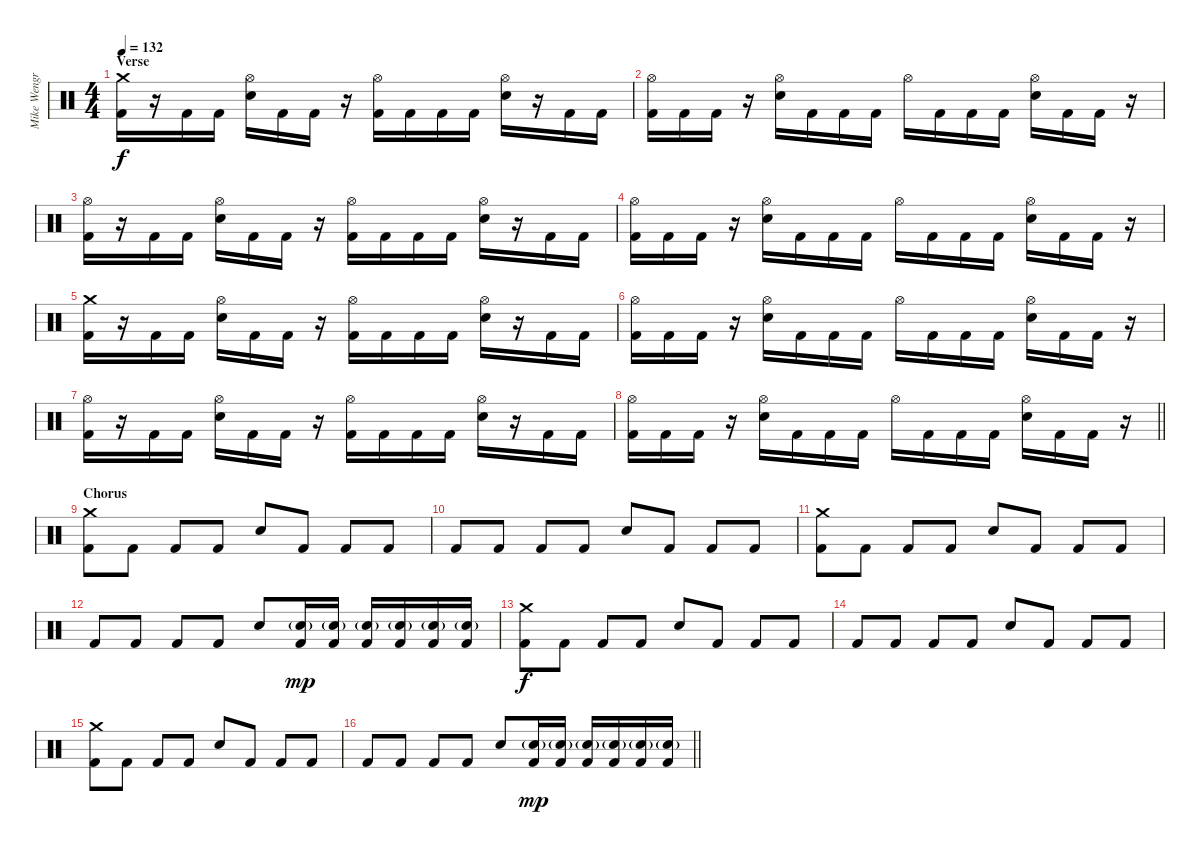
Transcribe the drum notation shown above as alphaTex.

\track ("Mike Wengren" "Mike Wengr") {instrument percussion}
\staff {score}
\articulation defaults
\ts (4 4)
\section ("" "Verse")
\tempo 132
\clef neutral
\ks c
("Crash medium (hit)" "Kick (hit) 2").16{dy f} r.16 "Kick (hit) 2".16 "Kick (hit) 2".16 ("Hi-Hat (open)" "Electric Snare (hit)").16 "Kick (hit) 2".16 "Kick (hit) 2".16 r.16 ("Hi-Hat (open)" "Kick (hit) 2").16 "Kick (hit) 2".16 "Kick (hit) 2".16 "Kick (hit) 2".16 ("Hi-Hat (open)" "Electric Snare (hit)").16 r.16 "Kick (hit) 2".16 "Kick (hit) 2".16 |
("Hi-Hat (open)" "Kick (hit) 2").16 "Kick (hit) 2".16 "Kick (hit) 2".16 r.16 ("Hi-Hat (open)" "Electric Snare (hit)").16 "Kick (hit) 2".16 "Kick (hit) 2".16 "Kick (hit) 2".16 "Hi-Hat (open)".16 "Kick (hit) 2".16 "Kick (hit) 2".16 "Kick (hit) 2".16 ("Hi-Hat (open)" "Electric Snare (hit)").16 "Kick (hit) 2".16 "Kick (hit) 2".16 r.16 |
("Hi-Hat (open)" "Kick (hit) 2").16 r.16 "Kick (hit) 2".16 "Kick (hit) 2".16 ("Hi-Hat (open)" "Electric Snare (hit)").16 "Kick (hit) 2".16 "Kick (hit) 2".16 r.16 ("Hi-Hat (open)" "Kick (hit) 2").16 "Kick (hit) 2".16 "Kick (hit) 2".16 "Kick (hit) 2".16 ("Hi-Hat (open)" "Electric Snare (hit)").16 r.16 "Kick (hit) 2".16 "Kick (hit) 2".16 |
("Hi-Hat (open)" "Kick (hit) 2").16 "Kick (hit) 2".16 "Kick (hit) 2".16 r.16 ("Hi-Hat (open)" "Electric Snare (hit)").16 "Kick (hit) 2".16 "Kick (hit) 2".16 "Kick (hit) 2".16 "Hi-Hat (open)".16 "Kick (hit) 2".16 "Kick (hit) 2".16 "Kick (hit) 2".16 ("Hi-Hat (open)" "Electric Snare (hit)").16 "Kick (hit) 2".16 "Kick (hit) 2".16 r.16 |
("Crash medium (hit)" "Kick (hit) 2").16 r.16 "Kick (hit) 2".16 "Kick (hit) 2".16 ("Hi-Hat (open)" "Electric Snare (hit)").16 "Kick (hit) 2".16 "Kick (hit) 2".16 r.16 ("Hi-Hat (open)" "Kick (hit) 2").16 "Kick (hit) 2".16 "Kick (hit) 2".16 "Kick (hit) 2".16 ("Hi-Hat (open)" "Electric Snare (hit)").16 r.16 "Kick (hit) 2".16 "Kick (hit) 2".16 |
("Hi-Hat (open)" "Kick (hit) 2").16 "Kick (hit) 2".16 "Kick (hit) 2".16 r.16 ("Hi-Hat (open)" "Electric Snare (hit)").16 "Kick (hit) 2".16 "Kick (hit) 2".16 "Kick (hit) 2".16 "Hi-Hat (open)".16 "Kick (hit) 2".16 "Kick (hit) 2".16 "Kick (hit) 2".16 ("Hi-Hat (open)" "Electric Snare (hit)").16 "Kick (hit) 2".16 "Kick (hit) 2".16 r.16 |
("Hi-Hat (open)" "Kick (hit) 2").16 r.16 "Kick (hit) 2".16 "Kick (hit) 2".16 ("Hi-Hat (open)" "Electric Snare (hit)").16 "Kick (hit) 2".16 "Kick (hit) 2".16 r.16 ("Hi-Hat (open)" "Kick (hit) 2").16 "Kick (hit) 2".16 "Kick (hit) 2".16 "Kick (hit) 2".16 ("Hi-Hat (open)" "Electric Snare (hit)").16 r.16 "Kick (hit) 2".16 "Kick (hit) 2".16 |
\barLineRight lightlight
("Hi-Hat (open)" "Kick (hit) 2").16 "Kick (hit) 2".16 "Kick (hit) 2".16 r.16 ("Hi-Hat (open)" "Electric Snare (hit)").16 "Kick (hit) 2".16 "Kick (hit) 2".16 "Kick (hit) 2".16 "Hi-Hat (open)".16 "Kick (hit) 2".16 "Kick (hit) 2".16 "Kick (hit) 2".16 ("Hi-Hat (open)" "Electric Snare (hit)").16 "Kick (hit) 2".16 "Kick (hit) 2".16 r.16 |
\section ("" "Chorus")
("Crash medium (hit)" "Kick (hit) 2").8 "Kick (hit) 2".8 "Kick (hit) 2".8 "Kick (hit) 2".8 "Electric Snare (hit)".8 "Kick (hit) 2".8 "Kick (hit) 2".8 "Kick (hit) 2".8 |
"Kick (hit) 2".8 "Kick (hit) 2".8 "Kick (hit) 2".8 "Kick (hit) 2".8 "Electric Snare (hit)".8 "Kick (hit) 2".8 "Kick (hit) 2".8 "Kick (hit) 2".8 |
("Crash medium (hit)" "Kick (hit) 2").8 "Kick (hit) 2".8 "Kick (hit) 2".8 "Kick (hit) 2".8 "Electric Snare (hit)".8 "Kick (hit) 2".8 "Kick (hit) 2".8 "Kick (hit) 2".8 |
"Kick (hit) 2".8 "Kick (hit) 2".8 "Kick (hit) 2".8 "Kick (hit) 2".8 "Electric Snare (hit)".8 ("Electric Snare (hit)"{g} "Kick (hit) 2").16{dy mp} ("Electric Snare (hit)"{g} "Kick (hit) 2").16 ("Electric Snare (hit)"{g} "Kick (hit) 2").16 ("Electric Snare (hit)"{g} "Kick (hit) 2").16 ("Electric Snare (hit)"{g} "Kick (hit) 2").16 ("Electric Snare (hit)"{g} "Kick (hit) 2").16 |
("Crash medium (hit)" "Kick (hit) 2").8{dy f} "Kick (hit) 2".8 "Kick (hit) 2".8 "Kick (hit) 2".8 "Electric Snare (hit)".8 "Kick (hit) 2".8 "Kick (hit) 2".8 "Kick (hit) 2".8 |
"Kick (hit) 2".8 "Kick (hit) 2".8 "Kick (hit) 2".8 "Kick (hit) 2".8 "Electric Snare (hit)".8 "Kick (hit) 2".8 "Kick (hit) 2".8 "Kick (hit) 2".8 |
("Crash medium (hit)" "Kick (hit) 2").8 "Kick (hit) 2".8 "Kick (hit) 2".8 "Kick (hit) 2".8 "Electric Snare (hit)".8 "Kick (hit) 2".8 "Kick (hit) 2".8 "Kick (hit) 2".8 |
\barLineRight lightlight "Kick (hit) 2".8 "Kick (hit) 2".8 "Kick (hit) 2".8 "Kick (hit) 2".8 "Electric Snare (hit)".8
("Electric Snare (hit)"{g} "Kick (hit) 2").16{dy mp} ("Electric Snare (hit)"{g} "Kick (hit) 2").16 ("Electric Snare (hit)"{g} "Kick (hit) 2").16 ("Electric Snare (hit)"{g} "Kick (hit) 2").16 ("Electric Snare (hit)"{g} "Kick (hit) 2").16 ("Electric Snare (hit)"{g} "Kick (hit) 2").16
